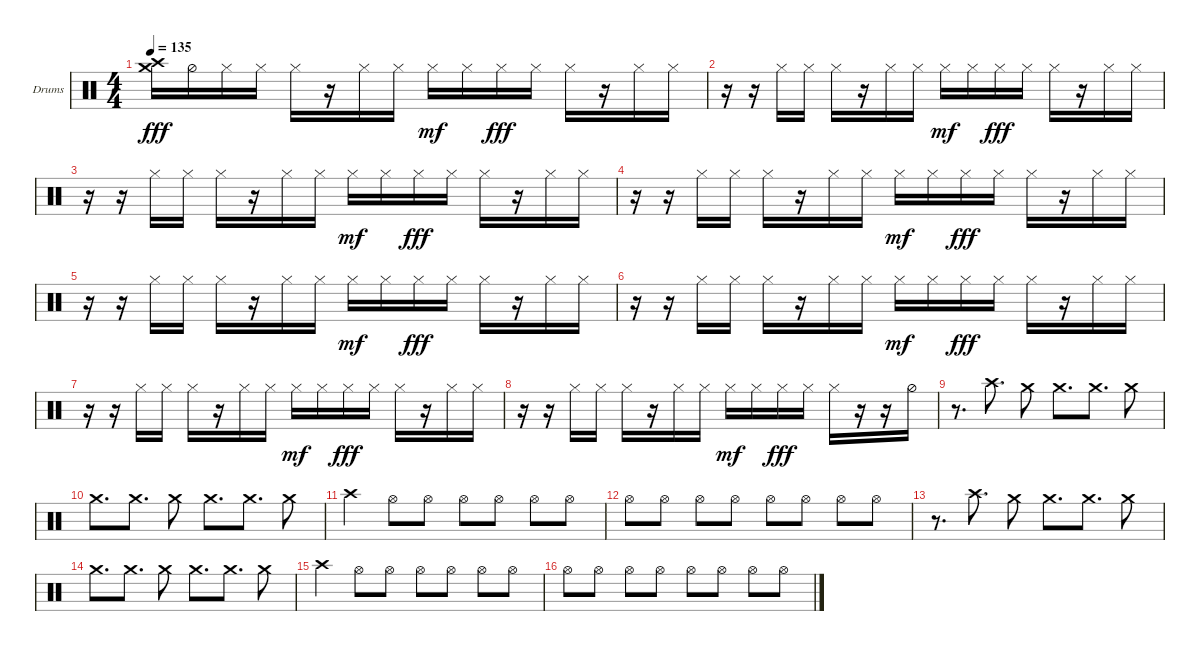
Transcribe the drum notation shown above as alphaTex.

\defaultSystemsLayout 4
\bracketExtendMode groupsimilarinstruments
\firstSystemTrackNameOrientation horizontal
\otherSystemsTrackNameOrientation horizontal
\track ("Matt Helders" "Drums") {instrument percussion}
\staff {score}
\articulation defaults
\ts (4 4)
\tempo 135
\clef neutral
\ks c
("Crash high (hit)" "Crash medium (hit)").16{dy fff} "Hi-Hat (half)".16 "Hi-Hat (closed)".16 "Hi-Hat (closed)".16 "Hi-Hat (closed)".16 r.16 "Hi-Hat (closed)".16 "Hi-Hat (closed)".16 "Hi-Hat (closed)".16{dy mf} "Hi-Hat (closed)".16 "Hi-Hat (closed)".16{dy fff} "Hi-Hat (closed)".16 "Hi-Hat (closed)".16 r.16 "Hi-Hat (closed)".16 "Hi-Hat (closed)".16 |
r.16 r.16 "Hi-Hat (closed)".16 "Hi-Hat (closed)".16 "Hi-Hat (closed)".16 r.16 "Hi-Hat (closed)".16 "Hi-Hat (closed)".16 "Hi-Hat (closed)".16{dy mf} "Hi-Hat (closed)".16 "Hi-Hat (closed)".16{dy fff} "Hi-Hat (closed)".16 "Hi-Hat (closed)".16 r.16 "Hi-Hat (closed)".16 "Hi-Hat (closed)".16 |
r.16 r.16 "Hi-Hat (closed)".16 "Hi-Hat (closed)".16 "Hi-Hat (closed)".16 r.16 "Hi-Hat (closed)".16 "Hi-Hat (closed)".16 "Hi-Hat (closed)".16{dy mf} "Hi-Hat (closed)".16 "Hi-Hat (closed)".16{dy fff} "Hi-Hat (closed)".16 "Hi-Hat (closed)".16 r.16 "Hi-Hat (closed)".16 "Hi-Hat (closed)".16 |
r.16 r.16 "Hi-Hat (closed)".16 "Hi-Hat (closed)".16 "Hi-Hat (closed)".16 r.16 "Hi-Hat (closed)".16 "Hi-Hat (closed)".16 "Hi-Hat (closed)".16{dy mf} "Hi-Hat (closed)".16 "Hi-Hat (closed)".16{dy fff} "Hi-Hat (closed)".16 "Hi-Hat (closed)".16 r.16 "Hi-Hat (closed)".16 "Hi-Hat (closed)".16 |
r.16 r.16 "Hi-Hat (closed)".16 "Hi-Hat (closed)".16 "Hi-Hat (closed)".16 r.16 "Hi-Hat (closed)".16 "Hi-Hat (closed)".16 "Hi-Hat (closed)".16{dy mf} "Hi-Hat (closed)".16 "Hi-Hat (closed)".16{dy fff} "Hi-Hat (closed)".16 "Hi-Hat (closed)".16 r.16 "Hi-Hat (closed)".16 "Hi-Hat (closed)".16 |
r.16 r.16 "Hi-Hat (closed)".16 "Hi-Hat (closed)".16 "Hi-Hat (closed)".16 r.16 "Hi-Hat (closed)".16 "Hi-Hat (closed)".16 "Hi-Hat (closed)".16{dy mf} "Hi-Hat (closed)".16 "Hi-Hat (closed)".16{dy fff} "Hi-Hat (closed)".16 "Hi-Hat (closed)".16 r.16 "Hi-Hat (closed)".16 "Hi-Hat (closed)".16 |
r.16 r.16 "Hi-Hat (closed)".16 "Hi-Hat (closed)".16 "Hi-Hat (closed)".16 r.16 "Hi-Hat (closed)".16 "Hi-Hat (closed)".16 "Hi-Hat (closed)".16{dy mf} "Hi-Hat (closed)".16 "Hi-Hat (closed)".16{dy fff} "Hi-Hat (closed)".16 "Hi-Hat (closed)".16 r.16 "Hi-Hat (closed)".16 "Hi-Hat (closed)".16 |
r.16 r.16 "Hi-Hat (closed)".16 "Hi-Hat (closed)".16 "Hi-Hat (closed)".16 r.16 "Hi-Hat (closed)".16 "Hi-Hat (closed)".16 "Hi-Hat (closed)".16{dy mf} "Hi-Hat (closed)".16 "Hi-Hat (closed)".16{dy fff} "Hi-Hat (closed)".16 "Hi-Hat (closed)".16 r.16 r.16 "Hi-Hat (half)".16 |
r.8{d} "Crash high (hit)".8{d} "Crash medium (hit)".8 "Crash medium (hit)".8{d} "Crash medium (hit)".8{d} "Crash medium (hit)".8 |
"Crash medium (hit)".8{d} "Crash medium (hit)".8{d} "Crash medium (hit)".8 "Crash medium (hit)".8{d} "Crash medium (hit)".8{d} "Crash medium (hit)".8 |
"Crash high (hit)".4 "Hi-Hat (open)".8 "Hi-Hat (open)".8 "Hi-Hat (open)".8 "Hi-Hat (open)".8 "Hi-Hat (open)".8 "Hi-Hat (open)".8 |
"Hi-Hat (open)".8 "Hi-Hat (open)".8 "Hi-Hat (open)".8 "Hi-Hat (open)".8 "Hi-Hat (open)".8 "Hi-Hat (open)".8 "Hi-Hat (open)".8 "Hi-Hat (open)".8 |
r.8{d} "Crash high (hit)".8{d} "Crash medium (hit)".8 "Crash medium (hit)".8{d} "Crash medium (hit)".8{d} "Crash medium (hit)".8 |
"Crash medium (hit)".8{d} "Crash medium (hit)".8{d} "Crash medium (hit)".8 "Crash medium (hit)".8{d} "Crash medium (hit)".8{d} "Crash medium (hit)".8 |
"Crash high (hit)".4 "Hi-Hat (open)".8 "Hi-Hat (open)".8 "Hi-Hat (open)".8 "Hi-Hat (open)".8 "Hi-Hat (open)".8 "Hi-Hat (open)".8 |
"Hi-Hat (open)".8 "Hi-Hat (open)".8 "Hi-Hat (open)".8 "Hi-Hat (open)".8 "Hi-Hat (open)".8 "Hi-Hat (open)".8 "Hi-Hat (open)".8 "Hi-Hat (open)".8
